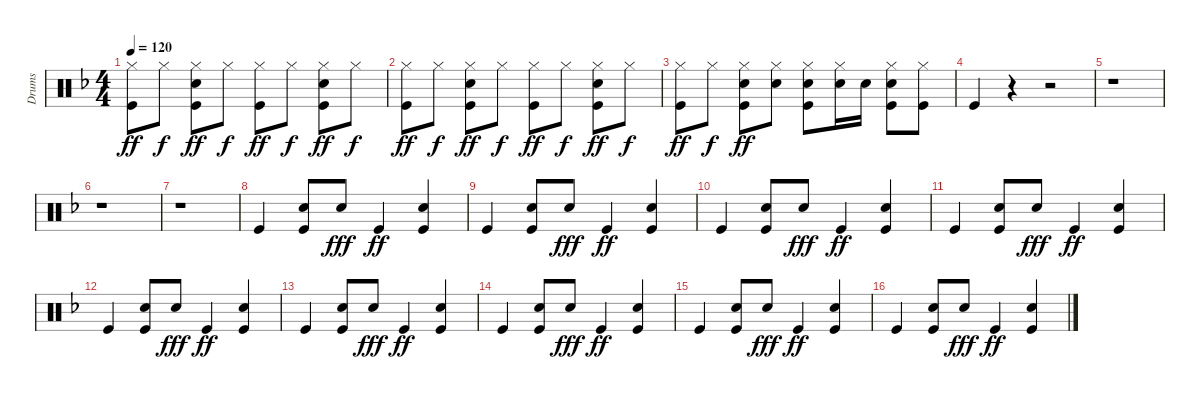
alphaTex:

\track ("Drums" "Drums") {instrument percussion}
\staff {score}
\articulation defaults
\ts (4 4)
\tempo 120
\clef neutral
\ks f
("Hi-Hat (closed)" "Kick (hit)").8{dy ff} "Hi-Hat (closed)".8{dy f} ("Hi-Hat (closed)" "Snare (hit) 2" "Kick (hit)").8{dy ff} "Hi-Hat (closed)".8{dy f} ("Hi-Hat (closed)" "Kick (hit)").8{dy ff} "Hi-Hat (closed)".8{dy f} ("Hi-Hat (closed)" "Snare (hit) 2" "Kick (hit)").8{dy ff} "Hi-Hat (closed)".8{dy f} |
("Hi-Hat (closed)" "Kick (hit)").8{dy ff} "Hi-Hat (closed)".8{dy f} ("Hi-Hat (closed)" "Snare (hit) 2" "Kick (hit)").8{dy ff} "Hi-Hat (closed)".8{dy f} ("Hi-Hat (closed)" "Kick (hit)").8{dy ff} "Hi-Hat (closed)".8{dy f} ("Hi-Hat (closed)" "Snare (hit) 2" "Kick (hit)").8{dy ff} "Hi-Hat (closed)".8{dy f} |
("Hi-Hat (closed)" "Kick (hit)").8{dy ff} "Hi-Hat (closed)".8{dy f} ("Hi-Hat (closed)" "Snare (hit) 2" "Kick (hit)").8{dy ff} ("Hi-Hat (closed)" "Snare (hit) 2").8 ("Hi-Hat (closed)" "Snare (hit) 2" "Kick (hit)").8 ("Hi-Hat (closed)" "Snare (hit) 2").16 "Snare (hit) 2".16 ("Hi-Hat (closed)" "Snare (hit) 2" "Kick (hit)").8 ("Hi-Hat (closed)" "Kick (hit)").8 |
"Kick (hit)".4 r.4 r.2 |
r.1 |
r.1 |
r.1 |
"Kick (hit)".4 ("Hand Clap (hit)" "Kick (hit)").8 "Hand Clap (hit)".8{dy fff} "Kick (hit)".4{dy ff} ("Hand Clap (hit)" "Kick (hit)").4 |
"Kick (hit)".4 ("Hand Clap (hit)" "Kick (hit)").8 "Hand Clap (hit)".8{dy fff} "Kick (hit)".4{dy ff} ("Hand Clap (hit)" "Kick (hit)").4 |
"Kick (hit)".4 ("Hand Clap (hit)" "Kick (hit)").8 "Hand Clap (hit)".8{dy fff} "Kick (hit)".4{dy ff} ("Hand Clap (hit)" "Kick (hit)").4 |
"Kick (hit)".4 ("Hand Clap (hit)" "Kick (hit)").8 "Hand Clap (hit)".8{dy fff} "Kick (hit)".4{dy ff} ("Hand Clap (hit)" "Kick (hit)").4 |
"Kick (hit)".4 ("Hand Clap (hit)" "Kick (hit)").8 "Hand Clap (hit)".8{dy fff} "Kick (hit)".4{dy ff} ("Hand Clap (hit)" "Kick (hit)").4 |
"Kick (hit)".4 ("Hand Clap (hit)" "Kick (hit)").8 "Hand Clap (hit)".8{dy fff} "Kick (hit)".4{dy ff} ("Hand Clap (hit)" "Kick (hit)").4 |
"Kick (hit)".4 ("Hand Clap (hit)" "Kick (hit)").8 "Hand Clap (hit)".8{dy fff} "Kick (hit)".4{dy ff} ("Hand Clap (hit)" "Kick (hit)").4 |
"Kick (hit)".4 ("Hand Clap (hit)" "Kick (hit)").8 "Hand Clap (hit)".8{dy fff} "Kick (hit)".4{dy ff} ("Hand Clap (hit)" "Kick (hit)").4 |
"Kick (hit)".4 ("Hand Clap (hit)" "Kick (hit)").8 "Hand Clap (hit)".8{dy fff} "Kick (hit)".4{dy ff} ("Hand Clap (hit)" "Kick (hit)").4
